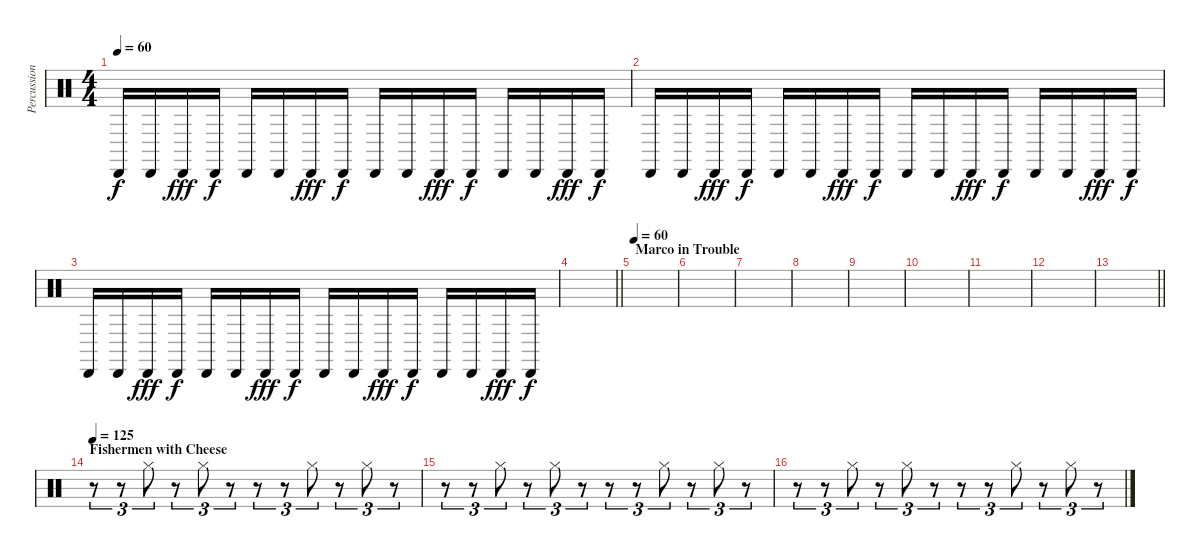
\track ("Percussion" "Percussion") {instrument percussion}
\staff {score}
\articulation defaults
\ts (4 4)
\tempo 60
\clef neutral
\ks c "Cabasa (hit)".16{dy f} "Cabasa (hit)".16 "Cabasa (hit)".16{dy fff} "Cabasa (hit)".16{dy f} "Cabasa (hit)".16 "Cabasa (hit)".16 "Cabasa (hit)".16{dy fff} "Cabasa (hit)".16{dy f} "Cabasa (hit)".16 "Cabasa (hit)".16 "Cabasa (hit)".16{dy fff} "Cabasa (hit)".16{dy f} "Cabasa (hit)".16 "Cabasa (hit)".16 "Cabasa (hit)".16{dy fff} "Cabasa (hit)".16{dy f}
|
"Cabasa (hit)".16 "Cabasa (hit)".16 "Cabasa (hit)".16{dy fff} "Cabasa (hit)".16{dy f} "Cabasa (hit)".16 "Cabasa (hit)".16 "Cabasa (hit)".16{dy fff} "Cabasa (hit)".16{dy f} "Cabasa (hit)".16 "Cabasa (hit)".16 "Cabasa (hit)".16{dy fff} "Cabasa (hit)".16{dy f} "Cabasa (hit)".16 "Cabasa (hit)".16 "Cabasa (hit)".16{dy fff} "Cabasa (hit)".16{dy f} |
"Cabasa (hit)".16 "Cabasa (hit)".16 "Cabasa (hit)".16{dy fff} "Cabasa (hit)".16{dy f} "Cabasa (hit)".16 "Cabasa (hit)".16 "Cabasa (hit)".16{dy fff} "Cabasa (hit)".16{dy f} "Cabasa (hit)".16 "Cabasa (hit)".16 "Cabasa (hit)".16{dy fff} "Cabasa (hit)".16{dy f} "Cabasa (hit)".16 "Cabasa (hit)".16 "Cabasa (hit)".16{dy fff} "Cabasa (hit)".16{dy f} |
\barLineRight lightlight
|
\section ("" "Marco in Trouble")
\tempo 60
|
|
|
|
|
|
|
|
\barLineRight lightlight
|
\section ("" "Fishermen with Cheese")
\tempo 125
r.8{tu (3 2)} r.8{tu (3 2)} "Hi-Hat (closed)".8{tu (3 2)} r.8{tu (3 2)} "Hi-Hat (closed)".8{tu (3 2)} r.8{tu (3 2)} r.8{tu (3 2)} r.8{tu (3 2)} "Hi-Hat (closed)".8{tu (3 2)} r.8{tu (3 2)} "Hi-Hat (closed)".8{tu (3 2)} r.8{tu (3 2)} |
r.8{tu (3 2)} r.8{tu (3 2)} "Hi-Hat (closed)".8{tu (3 2)} r.8{tu (3 2)} "Hi-Hat (closed)".8{tu (3 2)} r.8{tu (3 2)} r.8{tu (3 2)} r.8{tu (3 2)} "Hi-Hat (closed)".8{tu (3 2)} r.8{tu (3 2)} "Hi-Hat (closed)".8{tu (3 2)} r.8{tu (3 2)} |
r.8{tu (3 2)} r.8{tu (3 2)} "Hi-Hat (closed)".8{tu (3 2)} r.8{tu (3 2)} "Hi-Hat (closed)".8{tu (3 2)} r.8{tu (3 2)} r.8{tu (3 2)} r.8{tu (3 2)} "Hi-Hat (closed)".8{tu (3 2)} r.8{tu (3 2)} "Hi-Hat (closed)".8{tu (3 2)} r.8{tu (3 2)}
